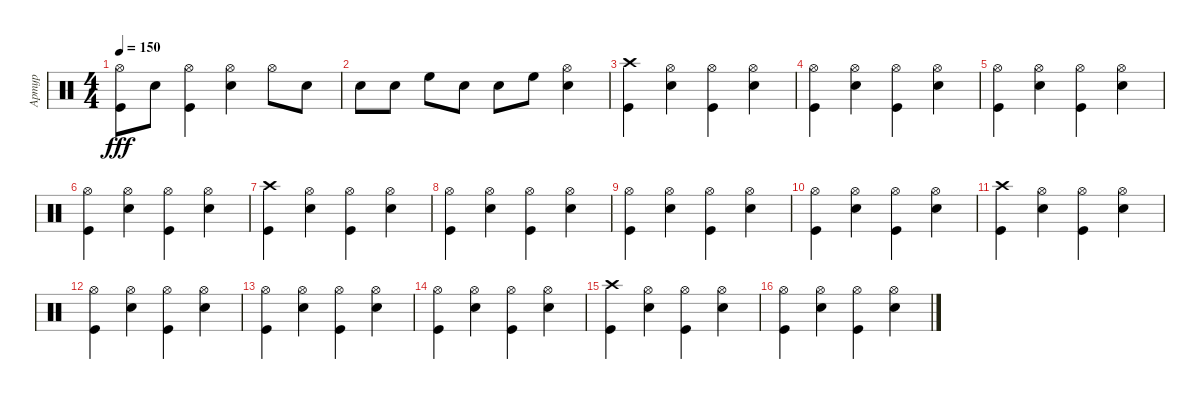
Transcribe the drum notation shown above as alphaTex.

\track ("Артур" "Артур") {instrument percussion}
\staff {score}
\articulation defaults
\ts (4 4)
\tempo 150
\clef neutral
\ks c
("Hi-Hat (open)" "Kick (hit)").8{dy fff} "Electric Snare (hit)".8 ("Hi-Hat (open)" "Kick (hit)").4 ("Electric Snare (hit)" "Hi-Hat (open)").4 "Hi-Hat (open)".8 "Electric Snare (hit)".8 |
"Electric Snare (hit)".8 "Electric Snare (hit)".8 "High Floor Tom (hit)".8 "Electric Snare (hit)".8 "Electric Snare (hit)".8 "High Floor Tom (hit)".8 ("Electric Snare (hit)" "Hi-Hat (open)").4 |
("Kick (hit)" "Crash high (hit)").4 ("Hi-Hat (open)" "Electric Snare (hit)").4 ("Hi-Hat (open)" "Kick (hit)").4 ("Hi-Hat (open)" "Electric Snare (hit)").4 |
("Kick (hit)" "Hi-Hat (open)").4 ("Hi-Hat (open)" "Electric Snare (hit)").4 ("Hi-Hat (open)" "Kick (hit)").4 ("Hi-Hat (open)" "Electric Snare (hit)").4 |
("Kick (hit)" "Hi-Hat (open)").4 ("Hi-Hat (open)" "Electric Snare (hit)").4 ("Hi-Hat (open)" "Kick (hit)").4 ("Hi-Hat (open)" "Electric Snare (hit)").4 |
("Kick (hit)" "Hi-Hat (open)").4 ("Hi-Hat (open)" "Electric Snare (hit)").4 ("Hi-Hat (open)" "Kick (hit)").4 ("Hi-Hat (open)" "Electric Snare (hit)").4 |
("Kick (hit)" "Crash high (hit)").4 ("Hi-Hat (open)" "Electric Snare (hit)").4 ("Hi-Hat (open)" "Kick (hit)").4 ("Hi-Hat (open)" "Electric Snare (hit)").4 |
("Kick (hit)" "Hi-Hat (open)").4 ("Hi-Hat (open)" "Electric Snare (hit)").4 ("Hi-Hat (open)" "Kick (hit)").4 ("Hi-Hat (open)" "Electric Snare (hit)").4 |
("Kick (hit)" "Hi-Hat (open)").4 ("Hi-Hat (open)" "Electric Snare (hit)").4 ("Hi-Hat (open)" "Kick (hit)").4 ("Hi-Hat (open)" "Electric Snare (hit)").4 |
("Kick (hit)" "Hi-Hat (open)").4 ("Hi-Hat (open)" "Electric Snare (hit)").4 ("Hi-Hat (open)" "Kick (hit)").4 ("Hi-Hat (open)" "Electric Snare (hit)").4 |
("Kick (hit)" "Crash high (hit)").4 ("Hi-Hat (open)" "Electric Snare (hit)").4 ("Hi-Hat (open)" "Kick (hit)").4 ("Hi-Hat (open)" "Electric Snare (hit)").4 |
("Kick (hit)" "Hi-Hat (open)").4 ("Hi-Hat (open)" "Electric Snare (hit)").4 ("Hi-Hat (open)" "Kick (hit)").4 ("Hi-Hat (open)" "Electric Snare (hit)").4 |
("Kick (hit)" "Hi-Hat (open)").4 ("Hi-Hat (open)" "Electric Snare (hit)").4 ("Hi-Hat (open)" "Kick (hit)").4 ("Hi-Hat (open)" "Electric Snare (hit)").4 |
("Kick (hit)" "Hi-Hat (open)").4 ("Hi-Hat (open)" "Electric Snare (hit)").4 ("Hi-Hat (open)" "Kick (hit)").4 ("Hi-Hat (open)" "Electric Snare (hit)").4 |
("Kick (hit)" "Crash high (hit)").4 ("Hi-Hat (open)" "Electric Snare (hit)").4 ("Hi-Hat (open)" "Kick (hit)").4 ("Hi-Hat (open)" "Electric Snare (hit)").4 |
("Kick (hit)" "Hi-Hat (open)").4 ("Hi-Hat (open)" "Electric Snare (hit)").4 ("Hi-Hat (open)" "Kick (hit)").4 ("Hi-Hat (open)" "Electric Snare (hit)").4
